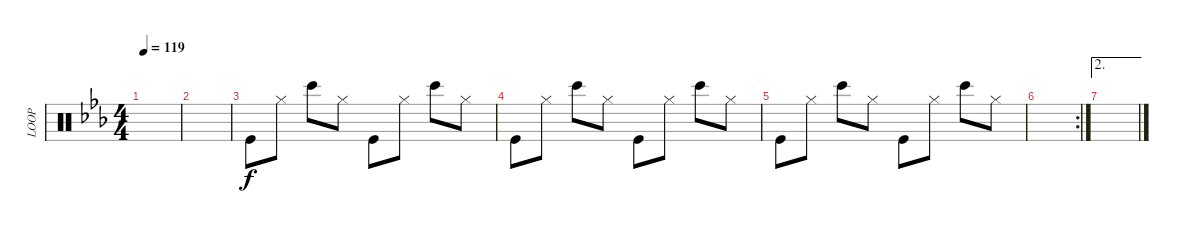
\track ("LOOP" "LOOP") {instrument percussion}
\staff {score}
\articulation defaults
\ts (4 4)
\tempo 119
\clef neutral
\ks eb
|
|
"Kick (hit)".8{volume 11} "Hi-Hat (closed)".8 "Bongo High (hit)".8 "Hi-Hat (closed)".8 "Kick (hit)".8 "Hi-Hat (closed)".8 "Bongo High (hit)".8 "Hi-Hat (closed)".8 |
"Kick (hit)".8 "Hi-Hat (closed)".8 "Bongo High (hit)".8 "Hi-Hat (closed)".8 "Kick (hit)".8 "Hi-Hat (closed)".8 "Bongo High (hit)".8 "Hi-Hat (closed)".8 |
"Kick (hit)".8 "Hi-Hat (closed)".8 "Bongo High (hit)".8 "Hi-Hat (closed)".8 "Kick (hit)".8 "Hi-Hat (closed)".8 "Bongo High (hit)".8 "Hi-Hat (closed)".8 |
\rc 2
|
\ae 2
